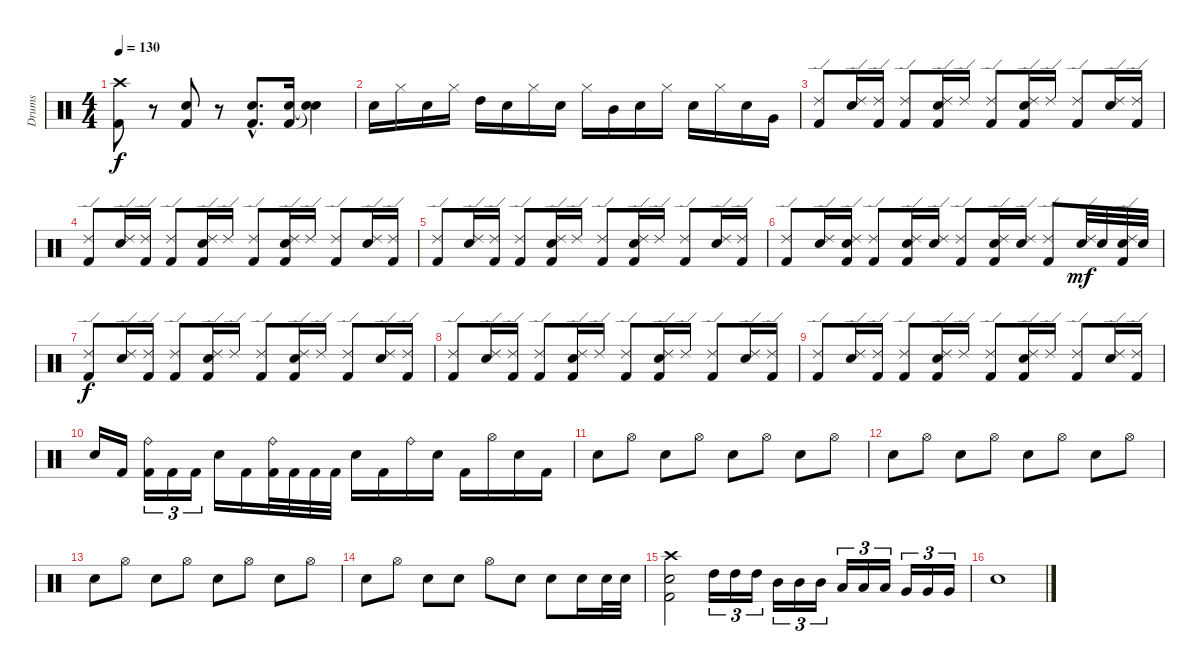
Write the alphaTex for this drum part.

\track ("Drums" "Drums") {instrument percussion}
\staff {score}
\articulation defaults
\ts (4 4)
\tempo 130
\clef neutral
\ks c
("Crash high (hit)" "Kick (hit) 2").8{dy f} r.8 ("Electric Snare (hit)" "Kick (hit) 2").8 r.8 ("Electric Snare (hit)"{hac} "Kick (hit) 2"{hac}).8{d} ("Electric Snare (hit)" "Kick (hit) 2").16 ("Snare (hit)"{t} "Snare (hit)"{t}).4 |
"Electric Snare (hit)".16 "Hi-Hat (closed)".16 "Electric Snare (hit)".16 "Hi-Hat (closed)".16 "High Tom (hit)".16 "Electric Snare (hit)".16 "Hi-Hat (closed)".16 "Electric Snare (hit)".16 "Hi-Hat (closed)".16 "Mid Tom (hit)".16 "Electric Snare (hit)".16 "Hi-Hat (closed)".16 "Electric Snare (hit)".16 "Hi-Hat (closed)".16 "Electric Snare (hit)".16 "Very Low Tom (hit)".16 |
("Ride (edge) 2" "Kick (hit) 2").8 ("Ride (edge) 2" "Electric Snare (hit)").16 ("Ride (edge) 2" "Kick (hit) 2").16 ("Ride (edge) 2" "Kick (hit) 2").8 ("Ride (edge) 2" "Electric Snare (hit)" "Kick (hit) 2").16 "Ride (edge) 2".16 ("Ride (edge) 2" "Kick (hit) 2").8 ("Ride (edge) 2" "Electric Snare (hit)" "Kick (hit) 2").16 "Ride (edge) 2".16 ("Ride (edge) 2" "Kick (hit) 2").8 ("Ride (edge) 2" "Electric Snare (hit)").16 ("Ride (edge) 2" "Kick (hit) 2").16 |
("Ride (edge) 2" "Kick (hit) 2").8 ("Ride (edge) 2" "Electric Snare (hit)").16 ("Ride (edge) 2" "Kick (hit) 2").16 ("Ride (edge) 2" "Kick (hit) 2").8 ("Ride (edge) 2" "Electric Snare (hit)" "Kick (hit) 2").16 "Ride (edge) 2".16 ("Ride (edge) 2" "Kick (hit) 2").8 ("Ride (edge) 2" "Electric Snare (hit)" "Kick (hit) 2").16 "Ride (edge) 2".16 ("Ride (edge) 2" "Kick (hit) 2").8 ("Ride (edge) 2" "Electric Snare (hit)").16 ("Ride (edge) 2" "Kick (hit) 2").16 |
("Ride (edge) 2" "Kick (hit) 2").8 ("Ride (edge) 2" "Electric Snare (hit)").16 ("Ride (edge) 2" "Kick (hit) 2").16 ("Ride (edge) 2" "Kick (hit) 2").8 ("Ride (edge) 2" "Electric Snare (hit)" "Kick (hit) 2").16 "Ride (edge) 2".16 ("Ride (edge) 2" "Kick (hit) 2").8 ("Ride (edge) 2" "Electric Snare (hit)" "Kick (hit) 2").16 "Ride (edge) 2".16 ("Ride (edge) 2" "Kick (hit) 2").8 ("Ride (edge) 2" "Electric Snare (hit)").16 ("Ride (edge) 2" "Kick (hit) 2").16 |
("Ride (edge) 2" "Kick (hit) 2").8 ("Ride (edge) 2" "Electric Snare (hit)").16 ("Ride (edge) 2" "Electric Snare (hit)" "Kick (hit) 2").16 ("Ride (edge) 2" "Kick (hit) 2").8 ("Ride (edge) 2" "Electric Snare (hit)" "Kick (hit) 2").16 ("Ride (edge) 2" "Electric Snare (hit)").16 ("Ride (edge) 2" "Kick (hit) 2").8 ("Ride (edge) 2" "Electric Snare (hit)" "Kick (hit) 2").16 ("Ride (edge) 2" "Electric Snare (hit)").16 ("Ride (edge) 2" "Kick (hit) 2").8 ("Ride (edge) 2" "Electric Snare (hit)").32{dy mf} "Electric Snare (hit)".32 ("Ride (edge) 2" "Electric Snare (hit)" "Kick (hit) 2").32 "Electric Snare (hit)".32 |
("Ride (edge) 2" "Kick (hit) 2").8{dy f} ("Ride (edge) 2" "Electric Snare (hit)").16 ("Ride (edge) 2" "Kick (hit) 2").16 ("Ride (edge) 2" "Kick (hit) 2").8 ("Ride (edge) 2" "Electric Snare (hit)" "Kick (hit) 2").16 "Ride (edge) 2".16 ("Ride (edge) 2" "Kick (hit) 2").8 ("Ride (edge) 2" "Electric Snare (hit)" "Kick (hit) 2").16 "Ride (edge) 2".16 ("Ride (edge) 2" "Kick (hit) 2").8 ("Ride (edge) 2" "Electric Snare (hit)").16 ("Ride (edge) 2" "Kick (hit) 2").16 |
("Ride (edge) 2" "Kick (hit) 2").8 ("Ride (edge) 2" "Electric Snare (hit)").16 ("Ride (edge) 2" "Kick (hit) 2").16 ("Ride (edge) 2" "Kick (hit) 2").8 ("Ride (edge) 2" "Electric Snare (hit)" "Kick (hit) 2").16 "Ride (edge) 2".16 ("Ride (edge) 2" "Kick (hit) 2").8 ("Ride (edge) 2" "Electric Snare (hit)" "Kick (hit) 2").16 "Ride (edge) 2".16 ("Ride (edge) 2" "Kick (hit) 2").8 ("Ride (edge) 2" "Electric Snare (hit)").16 ("Ride (edge) 2" "Kick (hit) 2").16 |
("Ride (edge) 2" "Kick (hit) 2").8 ("Ride (edge) 2" "Electric Snare (hit)").16 ("Ride (edge) 2" "Kick (hit) 2").16 ("Ride (edge) 2" "Kick (hit) 2").8 ("Ride (edge) 2" "Electric Snare (hit)" "Kick (hit) 2").16 "Ride (edge) 2".16 ("Ride (edge) 2" "Kick (hit) 2").8 ("Ride (edge) 2" "Electric Snare (hit)" "Kick (hit) 2").16 "Ride (edge) 2".16 ("Ride (edge) 2" "Kick (hit) 2").8 ("Ride (edge) 2" "Electric Snare (hit)").16 ("Ride (edge) 2" "Kick (hit) 2").16 |
"Electric Snare (hit)".16 "Kick (hit) 2".16 ("Ride (bell)" "Kick (hit) 2").16{tu (3 2)} "Kick (hit) 2".16{tu (3 2)} "Kick (hit) 2".16{tu (3 2)} "Electric Snare (hit)".16 "Kick (hit) 2".16 ("Ride (bell)" "Kick (hit) 2").32 "Kick (hit) 2".32 "Kick (hit) 2".32 "Kick (hit) 2".32 "Electric Snare (hit)".16 "Kick (hit) 2".16 "Ride (bell)".16 "Electric Snare (hit)".16 "Kick (hit) 2".16 "Hi-Hat (open)".16 "Electric Snare (hit)".16 "Kick (hit) 2".16 |
"Electric Snare (hit)".8 "Hi-Hat (open)".8 "Electric Snare (hit)".8 "Hi-Hat (open)".8 "Electric Snare (hit)".8 "Hi-Hat (open)".8 "Electric Snare (hit)".8 "Hi-Hat (open)".8 |
"Electric Snare (hit)".8 "Hi-Hat (open)".8 "Electric Snare (hit)".8 "Hi-Hat (open)".8 "Electric Snare (hit)".8 "Hi-Hat (open)".8 "Electric Snare (hit)".8 "Hi-Hat (open)".8 |
"Electric Snare (hit)".8 "Hi-Hat (open)".8 "Electric Snare (hit)".8 "Hi-Hat (open)".8 "Electric Snare (hit)".8 "Hi-Hat (open)".8 "Electric Snare (hit)".8 "Hi-Hat (open)".8 |
"Electric Snare (hit)".8 "Hi-Hat (open)".8 "Electric Snare (hit)".8 "Electric Snare (hit)".8 "Hi-Hat (open)".8 "Electric Snare (hit)".8 "Electric Snare (hit)".8 "Electric Snare (hit)".16 "Electric Snare (hit)".32 "Electric Snare (hit)".32 |
("Crash high (hit)" "Electric Snare (hit)" "Kick (hit) 2").2 "High Tom (hit)".16{tu (3 2)} "High Tom (hit)".16{tu (3 2)} "High Tom (hit)".16{tu (3 2)} "Mid Tom (hit)".16{tu (3 2)} "Mid Tom (hit)".16{tu (3 2)} "Mid Tom (hit)".16{tu (3 2)} "Low Tom (hit)".16{tu (3 2)} "Low Tom (hit)".16{tu (3 2)} "Low Tom (hit)".16{tu (3 2)} "Very Low Tom (hit)".16{tu (3 2)} "Very Low Tom (hit)".16{tu (3 2)} "Very Low Tom (hit)".16{tu (3 2)} |
"Electric Snare (hit)".1
